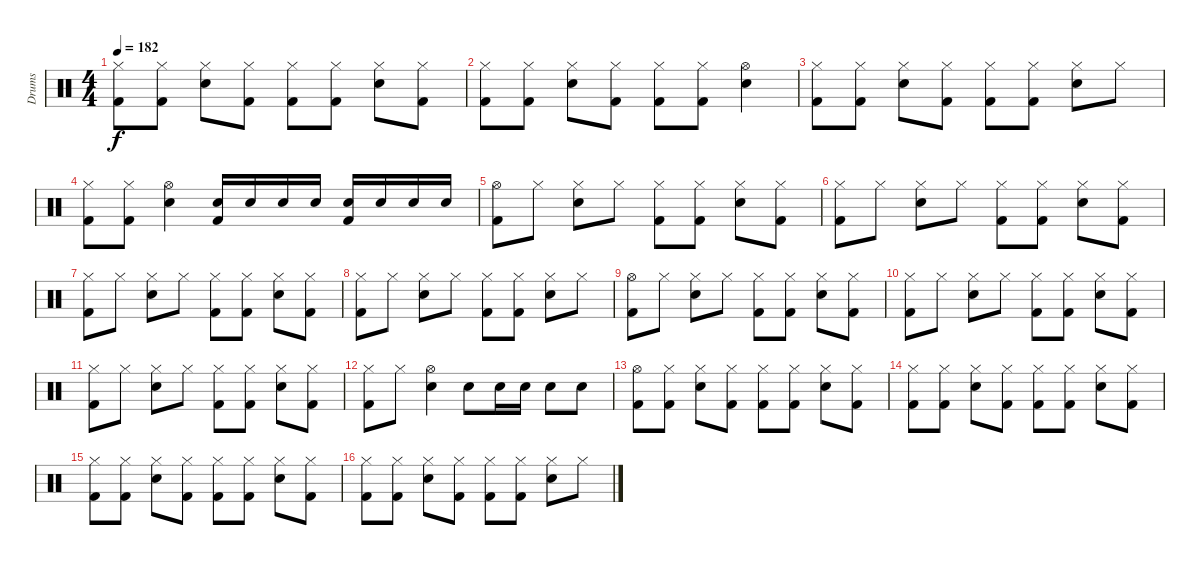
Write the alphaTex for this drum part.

\track ("Drums" "Drums") {instrument percussion}
\staff {score}
\articulation defaults
\ts (4 4)
\tempo 182
\clef neutral
\ks c
("Kick (hit) 2" "Hi-Hat (closed)").8{dy f} ("Kick (hit) 2" "Hi-Hat (closed)").8 ("Snare (hit) 2" "Hi-Hat (closed)").8 ("Kick (hit) 2" "Hi-Hat (closed)").8 ("Kick (hit) 2" "Hi-Hat (closed)").8 ("Kick (hit) 2" "Hi-Hat (closed)").8 ("Snare (hit) 2" "Hi-Hat (closed)").8 ("Kick (hit) 2" "Hi-Hat (closed)").8 |
("Kick (hit) 2" "Hi-Hat (closed)").8 ("Kick (hit) 2" "Hi-Hat (closed)").8 ("Snare (hit) 2" "Hi-Hat (closed)").8 ("Kick (hit) 2" "Hi-Hat (closed)").8 ("Kick (hit) 2" "Hi-Hat (closed)").8 ("Kick (hit) 2" "Hi-Hat (closed)").8 ("Snare (hit) 2" "Hi-Hat (open)").4 |
("Kick (hit) 2" "Hi-Hat (closed)").8 ("Kick (hit) 2" "Hi-Hat (closed)").8 ("Snare (hit) 2" "Hi-Hat (closed)").8 ("Kick (hit) 2" "Hi-Hat (closed)").8 ("Kick (hit) 2" "Hi-Hat (closed)").8 ("Kick (hit) 2" "Hi-Hat (closed)").8 ("Snare (hit) 2" "Hi-Hat (closed)").8 "Hi-Hat (closed)".8 |
("Kick (hit) 2" "Hi-Hat (closed)").8 ("Kick (hit) 2" "Hi-Hat (closed)").8 ("Snare (hit) 2" "Hi-Hat (open)").4 ("Snare (hit) 2" "Kick (hit) 2").16 "Snare (hit) 2".16 "Snare (hit) 2".16 "Snare (hit) 2".16 ("Snare (hit) 2" "Kick (hit) 2").16 "Snare (hit) 2".16 "Snare (hit) 2".16 "Snare (hit) 2".16 |
("Kick (hit) 2" "Hi-Hat (open)").8 "Hi-Hat (closed)".8 ("Snare (hit) 2" "Hi-Hat (closed)").8 "Hi-Hat (closed)".8 ("Kick (hit) 2" "Hi-Hat (closed)").8 ("Kick (hit) 2" "Hi-Hat (closed)").8 ("Snare (hit) 2" "Hi-Hat (closed)").8 ("Kick (hit) 2" "Hi-Hat (closed)").8 |
("Kick (hit) 2" "Hi-Hat (closed)").8 "Hi-Hat (closed)".8 ("Snare (hit) 2" "Hi-Hat (closed)").8 "Hi-Hat (closed)".8 ("Kick (hit) 2" "Hi-Hat (closed)").8 ("Kick (hit) 2" "Hi-Hat (closed)").8 ("Snare (hit) 2" "Hi-Hat (closed)").8 ("Kick (hit) 2" "Hi-Hat (closed)").8 |
("Kick (hit) 2" "Hi-Hat (closed)").8 "Hi-Hat (closed)".8 ("Snare (hit) 2" "Hi-Hat (closed)").8 "Hi-Hat (closed)".8 ("Kick (hit) 2" "Hi-Hat (closed)").8 ("Kick (hit) 2" "Hi-Hat (closed)").8 ("Snare (hit) 2" "Hi-Hat (closed)").8 ("Kick (hit) 2" "Hi-Hat (closed)").8 |
("Kick (hit) 2" "Hi-Hat (closed)").8 "Hi-Hat (closed)".8 ("Snare (hit) 2" "Hi-Hat (closed)").8 "Hi-Hat (closed)".8 ("Kick (hit) 2" "Hi-Hat (closed)").8 ("Kick (hit) 2" "Hi-Hat (closed)").8 ("Snare (hit) 2" "Hi-Hat (closed)").8 "Hi-Hat (closed)".8 |
("Kick (hit) 2" "Hi-Hat (open)").8 "Hi-Hat (closed)".8 ("Snare (hit) 2" "Hi-Hat (closed)").8 "Hi-Hat (closed)".8 ("Kick (hit) 2" "Hi-Hat (closed)").8 ("Kick (hit) 2" "Hi-Hat (closed)").8 ("Snare (hit) 2" "Hi-Hat (closed)").8 ("Kick (hit) 2" "Hi-Hat (closed)").8 |
("Kick (hit) 2" "Hi-Hat (closed)").8 "Hi-Hat (closed)".8 ("Snare (hit) 2" "Hi-Hat (closed)").8 "Hi-Hat (closed)".8 ("Kick (hit) 2" "Hi-Hat (closed)").8 ("Kick (hit) 2" "Hi-Hat (closed)").8 ("Snare (hit) 2" "Hi-Hat (closed)").8 ("Kick (hit) 2" "Hi-Hat (closed)").8 |
("Kick (hit) 2" "Hi-Hat (closed)").8 "Hi-Hat (closed)".8 ("Snare (hit) 2" "Hi-Hat (closed)").8 "Hi-Hat (closed)".8 ("Kick (hit) 2" "Hi-Hat (closed)").8 ("Kick (hit) 2" "Hi-Hat (closed)").8 ("Snare (hit) 2" "Hi-Hat (closed)").8 ("Kick (hit) 2" "Hi-Hat (closed)").8 |
("Kick (hit) 2" "Hi-Hat (closed)").8 "Hi-Hat (closed)".8 ("Snare (hit) 2" "Hi-Hat (open)").4 "Snare (hit) 2".8 "Snare (hit) 2".16 "Snare (hit) 2".16 "Snare (hit) 2".8 "Snare (hit) 2".8 |
("Kick (hit) 2" "Hi-Hat (open)").8 ("Kick (hit) 2" "Hi-Hat (closed)").8 ("Snare (hit) 2" "Hi-Hat (closed)").8 ("Kick (hit) 2" "Hi-Hat (closed)").8 ("Kick (hit) 2" "Hi-Hat (closed)").8 ("Kick (hit) 2" "Hi-Hat (closed)").8 ("Snare (hit) 2" "Hi-Hat (closed)").8 ("Kick (hit) 2" "Hi-Hat (closed)").8 |
("Kick (hit) 2" "Hi-Hat (closed)").8 ("Kick (hit) 2" "Hi-Hat (closed)").8 ("Snare (hit) 2" "Hi-Hat (closed)").8 ("Kick (hit) 2" "Hi-Hat (closed)").8 ("Kick (hit) 2" "Hi-Hat (closed)").8 ("Kick (hit) 2" "Hi-Hat (closed)").8 ("Snare (hit) 2" "Hi-Hat (closed)").8 ("Kick (hit) 2" "Hi-Hat (closed)").8 |
("Kick (hit) 2" "Hi-Hat (closed)").8 ("Kick (hit) 2" "Hi-Hat (closed)").8 ("Snare (hit) 2" "Hi-Hat (closed)").8 ("Kick (hit) 2" "Hi-Hat (closed)").8 ("Kick (hit) 2" "Hi-Hat (closed)").8 ("Kick (hit) 2" "Hi-Hat (closed)").8 ("Snare (hit) 2" "Hi-Hat (closed)").8 ("Kick (hit) 2" "Hi-Hat (closed)").8 |
("Kick (hit) 2" "Hi-Hat (closed)").8 ("Kick (hit) 2" "Hi-Hat (closed)").8 ("Snare (hit) 2" "Hi-Hat (closed)").8 ("Kick (hit) 2" "Hi-Hat (closed)").8 ("Kick (hit) 2" "Hi-Hat (closed)").8 ("Kick (hit) 2" "Hi-Hat (closed)").8 ("Snare (hit) 2" "Hi-Hat (closed)").8 "Hi-Hat (closed)".8
